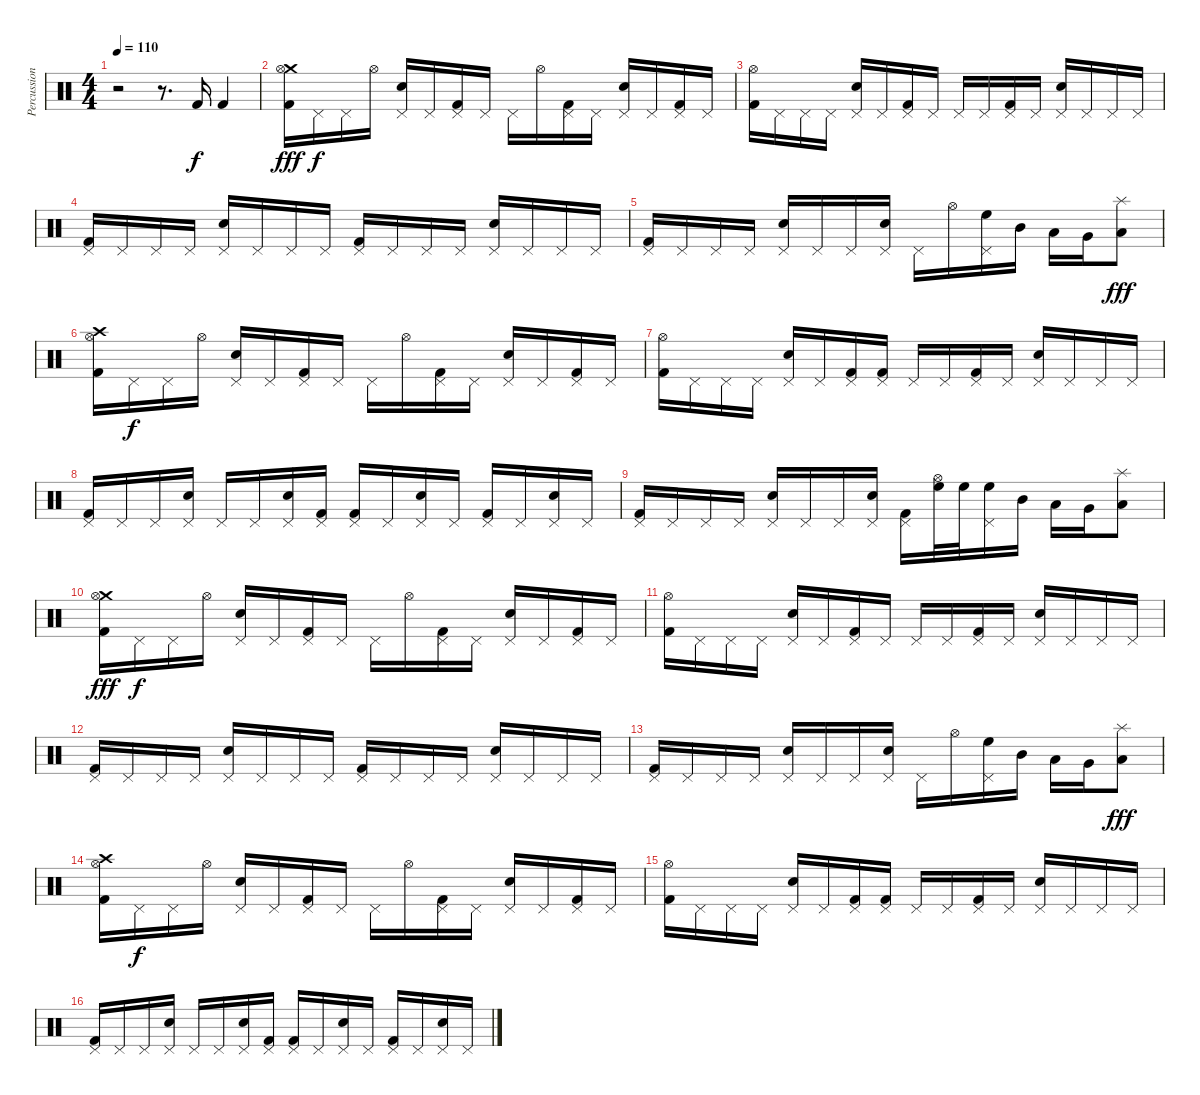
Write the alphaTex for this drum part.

\track ("Percussion" "Percussion") {instrument percussion}
\staff {score}
\articulation defaults
\ts (4 4)
\tempo 110
\clef neutral
\ks c
r.2{dy fff} r.8{d} "Kick (hit) 2".16{dy f} "Kick (hit) 2".4 |
("Crash medium (hit)" "Hi-Hat (open)" "Kick (hit) 2").16{dy fff} "Pedal Hi-Hat (hit)".16{dy f} "Pedal Hi-Hat (hit)".16 "Hi-Hat (open)".16 ("Pedal Hi-Hat (hit)" "Electric Snare (hit)").16 "Pedal Hi-Hat (hit)".16 ("Pedal Hi-Hat (hit)" "Kick (hit) 2").16 "Pedal Hi-Hat (hit)".16 "Pedal Hi-Hat (hit)".16 "Hi-Hat (open)".16 ("Pedal Hi-Hat (hit)" "Kick (hit) 2").16 "Pedal Hi-Hat (hit)".16 ("Pedal Hi-Hat (hit)" "Electric Snare (hit)").16 "Pedal Hi-Hat (hit)".16 ("Pedal Hi-Hat (hit)" "Kick (hit) 2").16 "Pedal Hi-Hat (hit)".16 |
("Hi-Hat (open)" "Kick (hit) 2").16 "Pedal Hi-Hat (hit)".16 "Pedal Hi-Hat (hit)".16 "Pedal Hi-Hat (hit)".16 ("Pedal Hi-Hat (hit)" "Electric Snare (hit)").16 "Pedal Hi-Hat (hit)".16 ("Pedal Hi-Hat (hit)" "Kick (hit) 2").16 "Pedal Hi-Hat (hit)".16 "Pedal Hi-Hat (hit)".16 "Pedal Hi-Hat (hit)".16 ("Pedal Hi-Hat (hit)" "Kick (hit) 2").16 "Pedal Hi-Hat (hit)".16 ("Pedal Hi-Hat (hit)" "Electric Snare (hit)").16 "Pedal Hi-Hat (hit)".16 "Pedal Hi-Hat (hit)".16 "Pedal Hi-Hat (hit)".16 |
("Pedal Hi-Hat (hit)" "Kick (hit) 2").16 "Pedal Hi-Hat (hit)".16 "Pedal Hi-Hat (hit)".16 "Pedal Hi-Hat (hit)".16 ("Pedal Hi-Hat (hit)" "Electric Snare (hit)").16 "Pedal Hi-Hat (hit)".16 "Pedal Hi-Hat (hit)".16 "Pedal Hi-Hat (hit)".16 ("Pedal Hi-Hat (hit)" "Kick (hit) 2").16 "Pedal Hi-Hat (hit)".16 "Pedal Hi-Hat (hit)".16 "Pedal Hi-Hat (hit)".16 ("Pedal Hi-Hat (hit)" "Electric Snare (hit)").16 "Pedal Hi-Hat (hit)".16 "Pedal Hi-Hat (hit)".16 "Pedal Hi-Hat (hit)".16 |
("Pedal Hi-Hat (hit)" "Kick (hit) 2").16 "Pedal Hi-Hat (hit)".16 "Pedal Hi-Hat (hit)".16 "Pedal Hi-Hat (hit)".16 ("Pedal Hi-Hat (hit)" "Electric Snare (hit)").16 "Pedal Hi-Hat (hit)".16 "Pedal Hi-Hat (hit)".16 ("Pedal Hi-Hat (hit)" "Electric Snare (hit)").16 "Pedal Hi-Hat (hit)".16 "Hi-Hat (open)".16 ("Pedal Hi-Hat (hit)" "High Floor Tom (hit)").16 "Mid Tom (hit)".16 "Low Tom (hit)".16 "Very Low Tom (hit)".16 ("Splash (hit)" "Low Floor Tom (hit)").8{dy fff} |
("Crash high (hit)" "Hi-Hat (open)" "Kick (hit) 2").16 "Pedal Hi-Hat (hit)".16{dy f} "Pedal Hi-Hat (hit)".16 "Hi-Hat (open)".16 ("Pedal Hi-Hat (hit)" "Electric Snare (hit)").16 "Pedal Hi-Hat (hit)".16 ("Pedal Hi-Hat (hit)" "Kick (hit) 2").16 "Pedal Hi-Hat (hit)".16 "Pedal Hi-Hat (hit)".16 "Hi-Hat (open)".16 ("Pedal Hi-Hat (hit)" "Kick (hit) 2").16 "Pedal Hi-Hat (hit)".16 ("Pedal Hi-Hat (hit)" "Electric Snare (hit)").16 "Pedal Hi-Hat (hit)".16 ("Pedal Hi-Hat (hit)" "Kick (hit) 2").16 "Pedal Hi-Hat (hit)".16 |
("Hi-Hat (open)" "Kick (hit) 2").16 "Pedal Hi-Hat (hit)".16 "Pedal Hi-Hat (hit)".16 "Pedal Hi-Hat (hit)".16 ("Pedal Hi-Hat (hit)" "Electric Snare (hit)").16 "Pedal Hi-Hat (hit)".16 ("Pedal Hi-Hat (hit)" "Kick (hit) 2").16 ("Pedal Hi-Hat (hit)" "Kick (hit) 2").16 "Pedal Hi-Hat (hit)".16 "Pedal Hi-Hat (hit)".16 ("Pedal Hi-Hat (hit)" "Kick (hit) 2").16 "Pedal Hi-Hat (hit)".16 ("Pedal Hi-Hat (hit)" "Electric Snare (hit)").16 "Pedal Hi-Hat (hit)".16 "Pedal Hi-Hat (hit)".16 "Pedal Hi-Hat (hit)".16 |
("Pedal Hi-Hat (hit)" "Kick (hit) 2").16 "Pedal Hi-Hat (hit)".16 "Pedal Hi-Hat (hit)".16 ("Pedal Hi-Hat (hit)" "Electric Snare (hit)").16 "Pedal Hi-Hat (hit)".16 "Pedal Hi-Hat (hit)".16 ("Pedal Hi-Hat (hit)" "Electric Snare (hit)").16 ("Pedal Hi-Hat (hit)" "Kick (hit) 2").16 ("Pedal Hi-Hat (hit)" "Kick (hit) 2").16 "Pedal Hi-Hat (hit)".16 ("Pedal Hi-Hat (hit)" "Electric Snare (hit)").16 "Pedal Hi-Hat (hit)".16 ("Pedal Hi-Hat (hit)" "Kick (hit) 2").16 "Pedal Hi-Hat (hit)".16 ("Pedal Hi-Hat (hit)" "Electric Snare (hit)").16 "Pedal Hi-Hat (hit)".16 |
("Pedal Hi-Hat (hit)" "Kick (hit) 2").16 "Pedal Hi-Hat (hit)".16 "Pedal Hi-Hat (hit)".16 "Pedal Hi-Hat (hit)".16 ("Pedal Hi-Hat (hit)" "Electric Snare (hit)").16 "Pedal Hi-Hat (hit)".16 "Pedal Hi-Hat (hit)".16 ("Pedal Hi-Hat (hit)" "Electric Snare (hit)").16 ("Pedal Hi-Hat (hit)" "Kick (hit) 2").16 ("Hi-Hat (open)" "High Floor Tom (hit)").32 "High Floor Tom (hit)".32 ("Pedal Hi-Hat (hit)" "High Floor Tom (hit)").16 "Mid Tom (hit)".16 "Low Tom (hit)".16 "Very Low Tom (hit)".16 ("Splash (hit)" "Low Floor Tom (hit)").8 |
("Crash medium (hit)" "Hi-Hat (open)" "Kick (hit) 2").16{dy fff} "Pedal Hi-Hat (hit)".16{dy f} "Pedal Hi-Hat (hit)".16 "Hi-Hat (open)".16 ("Pedal Hi-Hat (hit)" "Electric Snare (hit)").16 "Pedal Hi-Hat (hit)".16 ("Pedal Hi-Hat (hit)" "Kick (hit) 2").16 "Pedal Hi-Hat (hit)".16 "Pedal Hi-Hat (hit)".16 "Hi-Hat (open)".16 ("Pedal Hi-Hat (hit)" "Kick (hit) 2").16 "Pedal Hi-Hat (hit)".16 ("Pedal Hi-Hat (hit)" "Electric Snare (hit)").16 "Pedal Hi-Hat (hit)".16 ("Pedal Hi-Hat (hit)" "Kick (hit) 2").16 "Pedal Hi-Hat (hit)".16 |
("Hi-Hat (open)" "Kick (hit) 2").16 "Pedal Hi-Hat (hit)".16 "Pedal Hi-Hat (hit)".16 "Pedal Hi-Hat (hit)".16 ("Pedal Hi-Hat (hit)" "Electric Snare (hit)").16 "Pedal Hi-Hat (hit)".16 ("Pedal Hi-Hat (hit)" "Kick (hit) 2").16 "Pedal Hi-Hat (hit)".16 "Pedal Hi-Hat (hit)".16 "Pedal Hi-Hat (hit)".16 ("Pedal Hi-Hat (hit)" "Kick (hit) 2").16 "Pedal Hi-Hat (hit)".16 ("Pedal Hi-Hat (hit)" "Electric Snare (hit)").16 "Pedal Hi-Hat (hit)".16 "Pedal Hi-Hat (hit)".16 "Pedal Hi-Hat (hit)".16 |
("Pedal Hi-Hat (hit)" "Kick (hit) 2").16 "Pedal Hi-Hat (hit)".16 "Pedal Hi-Hat (hit)".16 "Pedal Hi-Hat (hit)".16 ("Pedal Hi-Hat (hit)" "Electric Snare (hit)").16 "Pedal Hi-Hat (hit)".16 "Pedal Hi-Hat (hit)".16 "Pedal Hi-Hat (hit)".16 ("Pedal Hi-Hat (hit)" "Kick (hit) 2").16 "Pedal Hi-Hat (hit)".16 "Pedal Hi-Hat (hit)".16 "Pedal Hi-Hat (hit)".16 ("Pedal Hi-Hat (hit)" "Electric Snare (hit)").16 "Pedal Hi-Hat (hit)".16 "Pedal Hi-Hat (hit)".16 "Pedal Hi-Hat (hit)".16 |
("Pedal Hi-Hat (hit)" "Kick (hit) 2").16 "Pedal Hi-Hat (hit)".16 "Pedal Hi-Hat (hit)".16 "Pedal Hi-Hat (hit)".16 ("Pedal Hi-Hat (hit)" "Electric Snare (hit)").16 "Pedal Hi-Hat (hit)".16 "Pedal Hi-Hat (hit)".16 ("Pedal Hi-Hat (hit)" "Electric Snare (hit)").16 "Pedal Hi-Hat (hit)".16 "Hi-Hat (open)".16 ("Pedal Hi-Hat (hit)" "High Floor Tom (hit)").16 "Mid Tom (hit)".16 "Low Tom (hit)".16 "Very Low Tom (hit)".16 ("Splash (hit)" "Low Floor Tom (hit)").8{dy fff} |
("Crash high (hit)" "Hi-Hat (open)" "Kick (hit) 2").16 "Pedal Hi-Hat (hit)".16{dy f} "Pedal Hi-Hat (hit)".16 "Hi-Hat (open)".16 ("Pedal Hi-Hat (hit)" "Electric Snare (hit)").16 "Pedal Hi-Hat (hit)".16 ("Pedal Hi-Hat (hit)" "Kick (hit) 2").16 "Pedal Hi-Hat (hit)".16 "Pedal Hi-Hat (hit)".16 "Hi-Hat (open)".16 ("Pedal Hi-Hat (hit)" "Kick (hit) 2").16 "Pedal Hi-Hat (hit)".16 ("Pedal Hi-Hat (hit)" "Electric Snare (hit)").16 "Pedal Hi-Hat (hit)".16 ("Pedal Hi-Hat (hit)" "Kick (hit) 2").16 "Pedal Hi-Hat (hit)".16 |
("Hi-Hat (open)" "Kick (hit) 2").16 "Pedal Hi-Hat (hit)".16 "Pedal Hi-Hat (hit)".16 "Pedal Hi-Hat (hit)".16 ("Pedal Hi-Hat (hit)" "Electric Snare (hit)").16 "Pedal Hi-Hat (hit)".16 ("Pedal Hi-Hat (hit)" "Kick (hit) 2").16 ("Pedal Hi-Hat (hit)" "Kick (hit) 2").16 "Pedal Hi-Hat (hit)".16 "Pedal Hi-Hat (hit)".16 ("Pedal Hi-Hat (hit)" "Kick (hit) 2").16 "Pedal Hi-Hat (hit)".16 ("Pedal Hi-Hat (hit)" "Electric Snare (hit)").16 "Pedal Hi-Hat (hit)".16 "Pedal Hi-Hat (hit)".16 "Pedal Hi-Hat (hit)".16 |
("Pedal Hi-Hat (hit)" "Kick (hit) 2").16 "Pedal Hi-Hat (hit)".16 "Pedal Hi-Hat (hit)".16 ("Pedal Hi-Hat (hit)" "Electric Snare (hit)").16 "Pedal Hi-Hat (hit)".16 "Pedal Hi-Hat (hit)".16 ("Pedal Hi-Hat (hit)" "Electric Snare (hit)").16 ("Pedal Hi-Hat (hit)" "Kick (hit) 2").16 ("Pedal Hi-Hat (hit)" "Kick (hit) 2").16 "Pedal Hi-Hat (hit)".16 ("Pedal Hi-Hat (hit)" "Electric Snare (hit)").16 "Pedal Hi-Hat (hit)".16 ("Pedal Hi-Hat (hit)" "Kick (hit) 2").16 "Pedal Hi-Hat (hit)".16 ("Pedal Hi-Hat (hit)" "Electric Snare (hit)").16 "Pedal Hi-Hat (hit)".16
